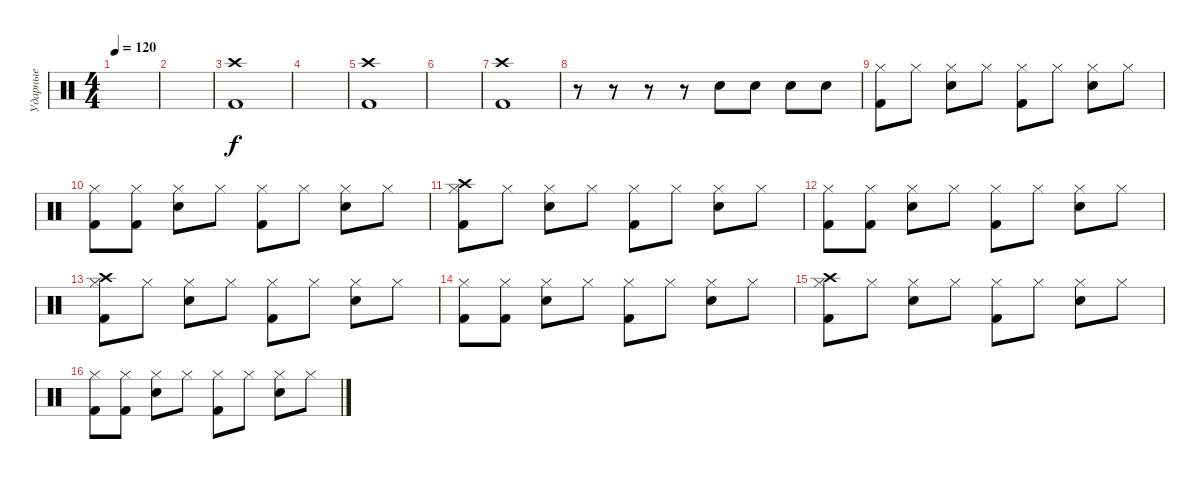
\track ("Ударные" "Ударные") {instrument percussion}
\staff {score}
\articulation defaults
\ts (4 4)
\tempo 120
\clef neutral
\ks c
|
|
("Crash high (hit)" "Kick (hit) 2").1 |
|
("Crash high (hit)" "Kick (hit) 2").1 |
|
("Crash high (hit)" "Kick (hit) 2").1 |
r.8 r.8 r.8 r.8 "Electric Snare (hit)".8 "Electric Snare (hit)".8 "Electric Snare (hit)".8 "Electric Snare (hit)".8 |
("Hi-Hat (closed)" "Kick (hit) 2").8 "Hi-Hat (closed)".8 ("Hi-Hat (closed)" "Electric Snare (hit)").8 "Hi-Hat (closed)".8 ("Hi-Hat (closed)" "Kick (hit) 2").8 "Hi-Hat (closed)".8 ("Hi-Hat (closed)" "Electric Snare (hit)").8 "Hi-Hat (closed)".8 |
("Hi-Hat (closed)" "Kick (hit) 2").8 ("Hi-Hat (closed)" "Kick (hit) 2").8 ("Hi-Hat (closed)" "Electric Snare (hit)").8 "Hi-Hat (closed)".8 ("Hi-Hat (closed)" "Kick (hit) 2").8 "Hi-Hat (closed)".8 ("Hi-Hat (closed)" "Electric Snare (hit)").8 "Hi-Hat (closed)".8 |
("Hi-Hat (closed)" "Kick (hit) 2" "Crash high (hit)").8 "Hi-Hat (closed)".8 ("Hi-Hat (closed)" "Electric Snare (hit)").8 "Hi-Hat (closed)".8 ("Hi-Hat (closed)" "Kick (hit) 2").8 "Hi-Hat (closed)".8 ("Hi-Hat (closed)" "Electric Snare (hit)").8 "Hi-Hat (closed)".8 |
("Hi-Hat (closed)" "Kick (hit) 2").8 ("Hi-Hat (closed)" "Kick (hit) 2").8 ("Hi-Hat (closed)" "Electric Snare (hit)").8 "Hi-Hat (closed)".8 ("Hi-Hat (closed)" "Kick (hit) 2").8 "Hi-Hat (closed)".8 ("Hi-Hat (closed)" "Electric Snare (hit)").8 "Hi-Hat (closed)".8 |
("Hi-Hat (closed)" "Kick (hit) 2" "Crash high (hit)").8 "Hi-Hat (closed)".8 ("Hi-Hat (closed)" "Electric Snare (hit)").8 "Hi-Hat (closed)".8 ("Hi-Hat (closed)" "Kick (hit) 2").8 "Hi-Hat (closed)".8 ("Hi-Hat (closed)" "Electric Snare (hit)").8 "Hi-Hat (closed)".8 |
("Hi-Hat (closed)" "Kick (hit) 2").8 ("Hi-Hat (closed)" "Kick (hit) 2").8 ("Hi-Hat (closed)" "Electric Snare (hit)").8 "Hi-Hat (closed)".8 ("Hi-Hat (closed)" "Kick (hit) 2").8 "Hi-Hat (closed)".8 ("Hi-Hat (closed)" "Electric Snare (hit)").8 "Hi-Hat (closed)".8 |
("Hi-Hat (closed)" "Kick (hit) 2" "Crash high (hit)").8 "Hi-Hat (closed)".8 ("Hi-Hat (closed)" "Electric Snare (hit)").8 "Hi-Hat (closed)".8 ("Hi-Hat (closed)" "Kick (hit) 2").8 "Hi-Hat (closed)".8 ("Hi-Hat (closed)" "Electric Snare (hit)").8 "Hi-Hat (closed)".8 |
("Hi-Hat (closed)" "Kick (hit) 2").8 ("Hi-Hat (closed)" "Kick (hit) 2").8 ("Hi-Hat (closed)" "Electric Snare (hit)").8 "Hi-Hat (closed)".8 ("Hi-Hat (closed)" "Kick (hit) 2").8 "Hi-Hat (closed)".8 ("Hi-Hat (closed)" "Electric Snare (hit)").8 "Hi-Hat (closed)".8
